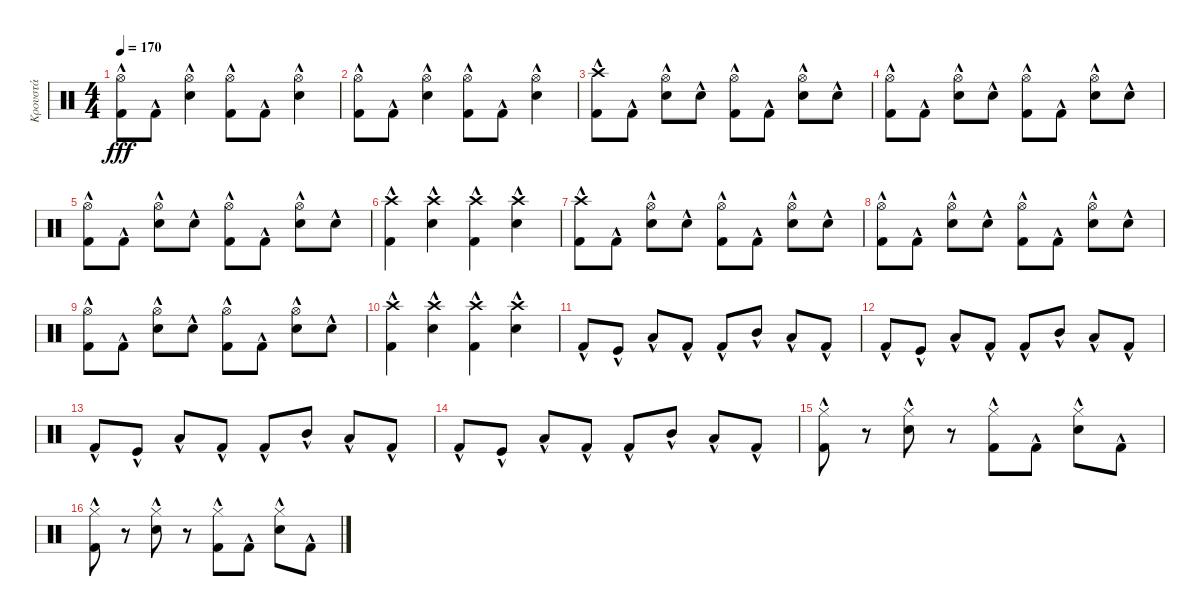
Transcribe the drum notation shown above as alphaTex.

\track ("Κρουστά" "Κρουστά") {instrument percussion}
\staff {score}
\articulation defaults
\ts (4 4)
\tempo 170
\clef neutral
\ks c
("Kick (hit) 2"{hac} "Hi-Hat (open)").8{dy fff} "Kick (hit) 2"{hac}.8 ("Electric Snare (hit)"{hac} "Hi-Hat (open)").4 ("Kick (hit) 2"{hac} "Hi-Hat (open)").8 "Kick (hit) 2"{hac}.8 ("Electric Snare (hit)"{hac} "Hi-Hat (open)").4 |
("Kick (hit) 2"{hac} "Hi-Hat (open)").8 "Kick (hit) 2"{hac}.8 ("Electric Snare (hit)"{hac} "Hi-Hat (open)").4 ("Kick (hit) 2"{hac} "Hi-Hat (open)").8 "Kick (hit) 2"{hac}.8 ("Electric Snare (hit)"{hac} "Hi-Hat (open)").4 |
("Crash high (hit)" "Kick (hit) 2"{hac}).8 "Kick (hit) 2"{hac}.8 ("Hi-Hat (open)" "Electric Snare (hit)"{hac}).8 "Electric Snare (hit)"{hac}.8 ("Hi-Hat (open)" "Kick (hit) 2"{hac}).8 "Kick (hit) 2"{hac}.8 ("Hi-Hat (open)" "Electric Snare (hit)"{hac}).8 "Electric Snare (hit)"{hac}.8 |
("Hi-Hat (open)" "Kick (hit) 2"{hac}).8 "Kick (hit) 2"{hac}.8 ("Hi-Hat (open)" "Electric Snare (hit)"{hac}).8 "Electric Snare (hit)"{hac}.8 ("Hi-Hat (open)" "Kick (hit) 2"{hac}).8 "Kick (hit) 2"{hac}.8 ("Hi-Hat (open)" "Electric Snare (hit)"{hac}).8 "Electric Snare (hit)"{hac}.8 |
("Hi-Hat (open)" "Kick (hit) 2"{hac}).8 "Kick (hit) 2"{hac}.8 ("Hi-Hat (open)" "Electric Snare (hit)"{hac}).8 "Electric Snare (hit)"{hac}.8 ("Hi-Hat (open)" "Kick (hit) 2"{hac}).8 "Kick (hit) 2"{hac}.8 ("Hi-Hat (open)" "Electric Snare (hit)"{hac}).8 "Electric Snare (hit)"{hac}.8 |
("Crash high (hit)" "Kick (hit) 2"{hac}).4 ("Crash high (hit)" "Electric Snare (hit)"{hac}).4 ("Crash high (hit)" "Kick (hit) 2"{hac}).4 ("Crash high (hit)" "Electric Snare (hit)"{hac}).4 |
("Crash high (hit)" "Kick (hit) 2"{hac}).8 "Kick (hit) 2"{hac}.8 ("Hi-Hat (open)" "Electric Snare (hit)"{hac}).8 "Electric Snare (hit)"{hac}.8 ("Hi-Hat (open)" "Kick (hit) 2"{hac}).8 "Kick (hit) 2"{hac}.8 ("Hi-Hat (open)" "Electric Snare (hit)"{hac}).8 "Electric Snare (hit)"{hac}.8 |
("Hi-Hat (open)" "Kick (hit) 2"{hac}).8 "Kick (hit) 2"{hac}.8 ("Hi-Hat (open)" "Electric Snare (hit)"{hac}).8 "Electric Snare (hit)"{hac}.8 ("Hi-Hat (open)" "Kick (hit) 2"{hac}).8 "Kick (hit) 2"{hac}.8 ("Hi-Hat (open)" "Electric Snare (hit)"{hac}).8 "Electric Snare (hit)"{hac}.8 |
("Hi-Hat (open)" "Kick (hit) 2"{hac}).8 "Kick (hit) 2"{hac}.8 ("Hi-Hat (open)" "Electric Snare (hit)"{hac}).8 "Electric Snare (hit)"{hac}.8 ("Hi-Hat (open)" "Kick (hit) 2"{hac}).8 "Kick (hit) 2"{hac}.8 ("Hi-Hat (open)" "Electric Snare (hit)"{hac}).8 "Electric Snare (hit)"{hac}.8 |
("Crash high (hit)" "Kick (hit) 2"{hac}).4 ("Crash high (hit)" "Electric Snare (hit)"{hac}).4 ("Crash high (hit)" "Kick (hit) 2"{hac}).4 ("Crash high (hit)" "Electric Snare (hit)"{hac}).4 |
"Kick (hit) 2"{hac}.8 "Kick (hit)"{hac}.8 "Low Tom (hit)"{hac}.8 "Kick (hit) 2"{hac}.8 "Kick (hit) 2"{hac}.8 "Mid Tom (hit)"{hac}.8 "Low Tom (hit)"{hac}.8 "Kick (hit) 2"{hac}.8 |
"Kick (hit) 2"{hac}.8 "Kick (hit)"{hac}.8 "Low Tom (hit)"{hac}.8 "Kick (hit) 2"{hac}.8 "Kick (hit) 2"{hac}.8 "Mid Tom (hit)"{hac}.8 "Low Tom (hit)"{hac}.8 "Kick (hit) 2"{hac}.8 |
"Kick (hit) 2"{hac}.8 "Kick (hit)"{hac}.8 "Low Tom (hit)"{hac}.8 "Kick (hit) 2"{hac}.8 "Kick (hit) 2"{hac}.8 "Mid Tom (hit)"{hac}.8 "Low Tom (hit)"{hac}.8 "Kick (hit) 2"{hac}.8 |
"Kick (hit) 2"{hac}.8 "Kick (hit)"{hac}.8 "Low Tom (hit)"{hac}.8 "Kick (hit) 2"{hac}.8 "Kick (hit) 2"{hac}.8 "Mid Tom (hit)"{hac}.8 "Low Tom (hit)"{hac}.8 "Kick (hit) 2"{hac}.8 |
("Hi-Hat (closed)" "Kick (hit) 2"{hac}).8{volume 7} r.8 ("Hi-Hat (closed)" "Electric Snare (hit)"{hac}).8 r.8 ("Hi-Hat (closed)" "Kick (hit) 2"{hac}).8 "Kick (hit) 2"{hac}.8 ("Hi-Hat (closed)" "Electric Snare (hit)"{hac}).8 "Kick (hit) 2"{hac}.8 |
("Hi-Hat (closed)" "Kick (hit) 2"{hac}).8 r.8 ("Hi-Hat (closed)" "Electric Snare (hit)"{hac}).8 r.8 ("Hi-Hat (closed)" "Kick (hit) 2"{hac}).8 "Kick (hit) 2"{hac}.8 ("Hi-Hat (closed)" "Electric Snare (hit)"{hac}).8 "Kick (hit) 2"{hac}.8
